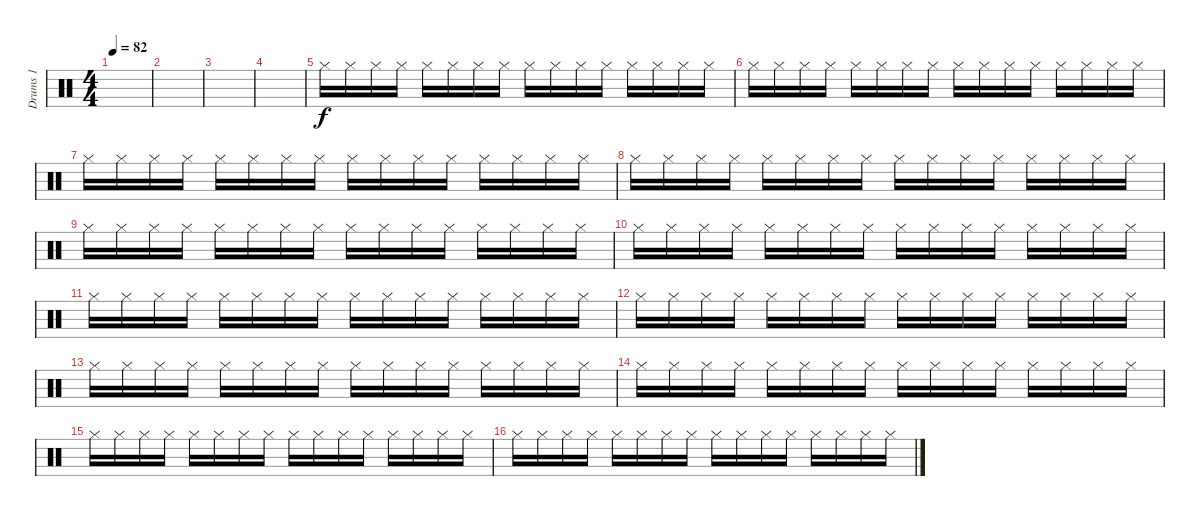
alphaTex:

\track ("Drums 1" "Drums 1") {instrument percussion}
\staff {score}
\articulation defaults
\ts (4 4)
\tempo 82
\clef neutral
\ks c
|
|
|
|
"Hi-Hat (closed)".16 "Hi-Hat (closed)".16 "Hi-Hat (closed)".16 "Hi-Hat (closed)".16 "Hi-Hat (closed)".16 "Hi-Hat (closed)".16 "Hi-Hat (closed)".16 "Hi-Hat (closed)".16 "Hi-Hat (closed)".16 "Hi-Hat (closed)".16 "Hi-Hat (closed)".16 "Hi-Hat (closed)".16 "Hi-Hat (closed)".16 "Hi-Hat (closed)".16 "Hi-Hat (closed)".16 "Hi-Hat (closed)".16 |
"Hi-Hat (closed)".16 "Hi-Hat (closed)".16 "Hi-Hat (closed)".16 "Hi-Hat (closed)".16 "Hi-Hat (closed)".16 "Hi-Hat (closed)".16 "Hi-Hat (closed)".16 "Hi-Hat (closed)".16 "Hi-Hat (closed)".16 "Hi-Hat (closed)".16 "Hi-Hat (closed)".16 "Hi-Hat (closed)".16 "Hi-Hat (closed)".16 "Hi-Hat (closed)".16 "Hi-Hat (closed)".16 "Hi-Hat (closed)".16 |
"Hi-Hat (closed)".16 "Hi-Hat (closed)".16 "Hi-Hat (closed)".16 "Hi-Hat (closed)".16 "Hi-Hat (closed)".16 "Hi-Hat (closed)".16 "Hi-Hat (closed)".16 "Hi-Hat (closed)".16 "Hi-Hat (closed)".16 "Hi-Hat (closed)".16 "Hi-Hat (closed)".16 "Hi-Hat (closed)".16 "Hi-Hat (closed)".16 "Hi-Hat (closed)".16 "Hi-Hat (closed)".16 "Hi-Hat (closed)".16 |
"Hi-Hat (closed)".16 "Hi-Hat (closed)".16 "Hi-Hat (closed)".16 "Hi-Hat (closed)".16 "Hi-Hat (closed)".16 "Hi-Hat (closed)".16 "Hi-Hat (closed)".16 "Hi-Hat (closed)".16 "Hi-Hat (closed)".16 "Hi-Hat (closed)".16 "Hi-Hat (closed)".16 "Hi-Hat (closed)".16 "Hi-Hat (closed)".16 "Hi-Hat (closed)".16 "Hi-Hat (closed)".16 "Hi-Hat (closed)".16 |
"Hi-Hat (closed)".16 "Hi-Hat (closed)".16 "Hi-Hat (closed)".16 "Hi-Hat (closed)".16 "Hi-Hat (closed)".16 "Hi-Hat (closed)".16 "Hi-Hat (closed)".16 "Hi-Hat (closed)".16 "Hi-Hat (closed)".16 "Hi-Hat (closed)".16 "Hi-Hat (closed)".16 "Hi-Hat (closed)".16 "Hi-Hat (closed)".16 "Hi-Hat (closed)".16 "Hi-Hat (closed)".16 "Hi-Hat (closed)".16 |
"Hi-Hat (closed)".16 "Hi-Hat (closed)".16 "Hi-Hat (closed)".16 "Hi-Hat (closed)".16 "Hi-Hat (closed)".16 "Hi-Hat (closed)".16 "Hi-Hat (closed)".16 "Hi-Hat (closed)".16 "Hi-Hat (closed)".16 "Hi-Hat (closed)".16 "Hi-Hat (closed)".16 "Hi-Hat (closed)".16 "Hi-Hat (closed)".16 "Hi-Hat (closed)".16 "Hi-Hat (closed)".16 "Hi-Hat (closed)".16 |
"Hi-Hat (closed)".16 "Hi-Hat (closed)".16 "Hi-Hat (closed)".16 "Hi-Hat (closed)".16 "Hi-Hat (closed)".16 "Hi-Hat (closed)".16 "Hi-Hat (closed)".16 "Hi-Hat (closed)".16 "Hi-Hat (closed)".16 "Hi-Hat (closed)".16 "Hi-Hat (closed)".16 "Hi-Hat (closed)".16 "Hi-Hat (closed)".16 "Hi-Hat (closed)".16 "Hi-Hat (closed)".16 "Hi-Hat (closed)".16 |
"Hi-Hat (closed)".16 "Hi-Hat (closed)".16 "Hi-Hat (closed)".16 "Hi-Hat (closed)".16 "Hi-Hat (closed)".16 "Hi-Hat (closed)".16 "Hi-Hat (closed)".16 "Hi-Hat (closed)".16 "Hi-Hat (closed)".16 "Hi-Hat (closed)".16 "Hi-Hat (closed)".16 "Hi-Hat (closed)".16 "Hi-Hat (closed)".16 "Hi-Hat (closed)".16 "Hi-Hat (closed)".16 "Hi-Hat (closed)".16 |
"Hi-Hat (closed)".16 "Hi-Hat (closed)".16 "Hi-Hat (closed)".16 "Hi-Hat (closed)".16 "Hi-Hat (closed)".16 "Hi-Hat (closed)".16 "Hi-Hat (closed)".16 "Hi-Hat (closed)".16 "Hi-Hat (closed)".16 "Hi-Hat (closed)".16 "Hi-Hat (closed)".16 "Hi-Hat (closed)".16 "Hi-Hat (closed)".16 "Hi-Hat (closed)".16 "Hi-Hat (closed)".16 "Hi-Hat (closed)".16 |
"Hi-Hat (closed)".16 "Hi-Hat (closed)".16 "Hi-Hat (closed)".16 "Hi-Hat (closed)".16 "Hi-Hat (closed)".16 "Hi-Hat (closed)".16 "Hi-Hat (closed)".16 "Hi-Hat (closed)".16 "Hi-Hat (closed)".16 "Hi-Hat (closed)".16 "Hi-Hat (closed)".16 "Hi-Hat (closed)".16 "Hi-Hat (closed)".16 "Hi-Hat (closed)".16 "Hi-Hat (closed)".16 "Hi-Hat (closed)".16 |
"Hi-Hat (closed)".16 "Hi-Hat (closed)".16 "Hi-Hat (closed)".16 "Hi-Hat (closed)".16 "Hi-Hat (closed)".16 "Hi-Hat (closed)".16 "Hi-Hat (closed)".16 "Hi-Hat (closed)".16 "Hi-Hat (closed)".16 "Hi-Hat (closed)".16 "Hi-Hat (closed)".16 "Hi-Hat (closed)".16 "Hi-Hat (closed)".16 "Hi-Hat (closed)".16 "Hi-Hat (closed)".16 "Hi-Hat (closed)".16 |
"Hi-Hat (closed)".16 "Hi-Hat (closed)".16 "Hi-Hat (closed)".16 "Hi-Hat (closed)".16 "Hi-Hat (closed)".16 "Hi-Hat (closed)".16 "Hi-Hat (closed)".16 "Hi-Hat (closed)".16 "Hi-Hat (closed)".16 "Hi-Hat (closed)".16 "Hi-Hat (closed)".16 "Hi-Hat (closed)".16 "Hi-Hat (closed)".16 "Hi-Hat (closed)".16 "Hi-Hat (closed)".16 "Hi-Hat (closed)".16
